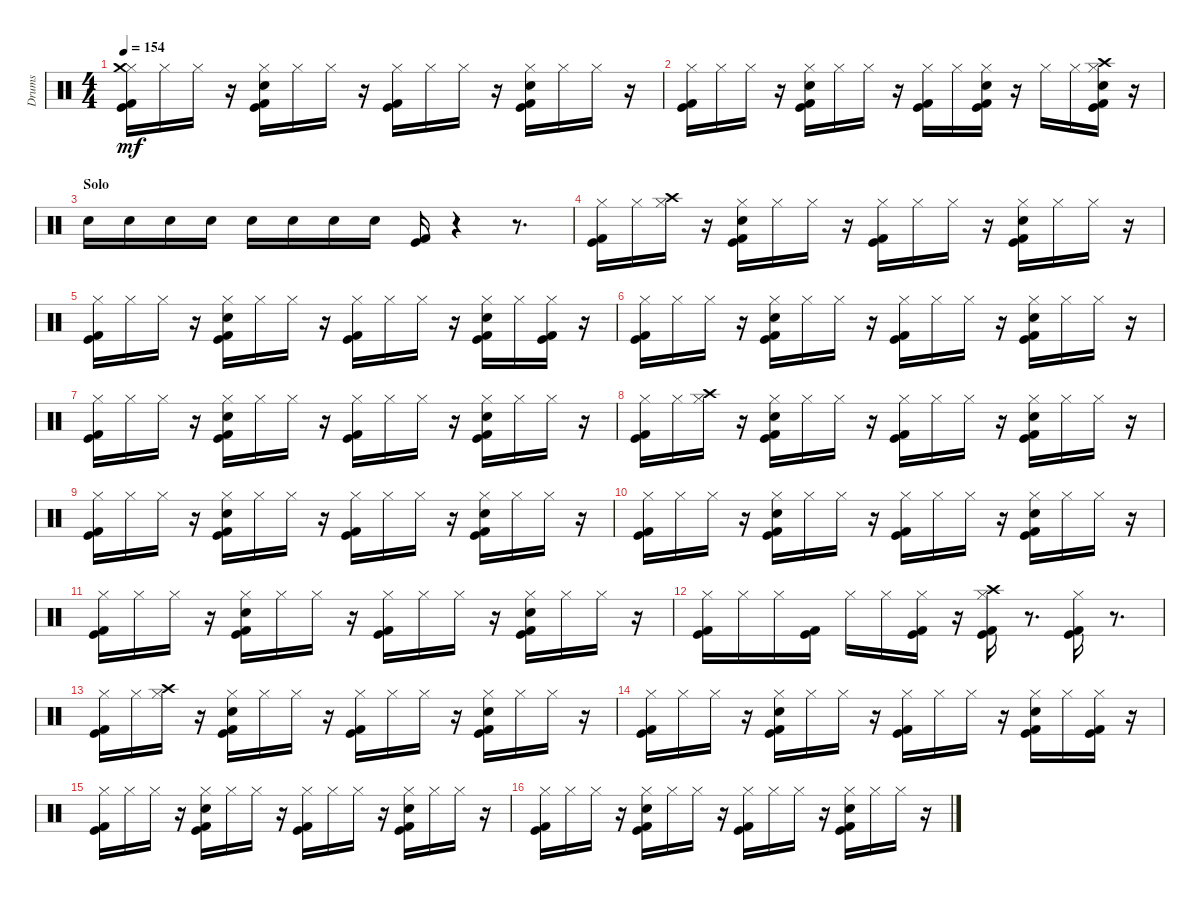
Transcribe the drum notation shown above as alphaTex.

\track ("Drums" "Drums") {instrument percussion}
\staff {score}
\articulation defaults
\ts (4 4)
\tempo 154
\clef neutral
\ks c
("Kick (hit)" "Kick (hit) 2" "Hi-Hat (closed)" "Crash medium (hit)").16{dy mf} "Hi-Hat (closed)".16 "Hi-Hat (closed)".16 r.16 ("Kick (hit)" "Kick (hit) 2" "Electric Snare (hit)" "Hi-Hat (closed)").16 "Hi-Hat (closed)".16 "Hi-Hat (closed)".16 r.16 ("Kick (hit)" "Kick (hit) 2" "Hi-Hat (closed)").16 "Hi-Hat (closed)".16 "Hi-Hat (closed)".16 r.16 ("Kick (hit)" "Kick (hit) 2" "Electric Snare (hit)" "Hi-Hat (closed)").16 "Hi-Hat (closed)".16 "Hi-Hat (closed)".16 r.16 |
("Kick (hit)" "Kick (hit) 2" "Hi-Hat (closed)").16 "Hi-Hat (closed)".16 "Hi-Hat (closed)".16 r.16 ("Kick (hit)" "Kick (hit) 2" "Electric Snare (hit)" "Hi-Hat (closed)").16 "Hi-Hat (closed)".16 "Hi-Hat (closed)".16 r.16 ("Kick (hit)" "Kick (hit) 2" "Hi-Hat (closed)").16 "Hi-Hat (closed)".16 ("Kick (hit)" "Kick (hit) 2" "Electric Snare (hit)" "Hi-Hat (closed)").16 r.16 "Hi-Hat (closed)".16 "Hi-Hat (closed)".16 ("Kick (hit)" "Kick (hit) 2" "Electric Snare (hit)" "Hi-Hat (closed)" "Crash high (hit)").16 r.16 |
\section ("" "Solo")
"Electric Snare (hit)".16 "Electric Snare (hit)".16 "Electric Snare (hit)".16 "Electric Snare (hit)".16 "Electric Snare (hit)".16 "Electric Snare (hit)".16 "Electric Snare (hit)".16 "Electric Snare (hit)".16 ("Kick (hit)" "Kick (hit) 2").16 r.4 r.8{d} |
("Kick (hit)" "Kick (hit) 2" "Hi-Hat (closed)").16 "Hi-Hat (closed)".16 ("Hi-Hat (closed)" "Crash high (hit)").16 r.16 ("Kick (hit)" "Kick (hit) 2" "Electric Snare (hit)" "Hi-Hat (closed)").16 "Hi-Hat (closed)".16 "Hi-Hat (closed)".16 r.16 ("Kick (hit)" "Kick (hit) 2" "Hi-Hat (closed)").16 "Hi-Hat (closed)".16 "Hi-Hat (closed)".16 r.16 ("Kick (hit)" "Kick (hit) 2" "Electric Snare (hit)" "Hi-Hat (closed)").16 "Hi-Hat (closed)".16 "Hi-Hat (closed)".16 r.16 |
("Kick (hit)" "Kick (hit) 2" "Hi-Hat (closed)").16 "Hi-Hat (closed)".16 "Hi-Hat (closed)".16 r.16 ("Kick (hit)" "Kick (hit) 2" "Electric Snare (hit)" "Hi-Hat (closed)").16 "Hi-Hat (closed)".16 "Hi-Hat (closed)".16 r.16 ("Kick (hit)" "Kick (hit) 2" "Hi-Hat (closed)").16 "Hi-Hat (closed)".16 "Hi-Hat (closed)".16 r.16 ("Kick (hit)" "Kick (hit) 2" "Electric Snare (hit)" "Hi-Hat (closed)").16 "Hi-Hat (closed)".16 ("Kick (hit)" "Kick (hit) 2" "Hi-Hat (closed)").16 r.16 |
("Kick (hit)" "Kick (hit) 2" "Hi-Hat (closed)").16 "Hi-Hat (closed)".16 "Hi-Hat (closed)".16 r.16 ("Kick (hit)" "Kick (hit) 2" "Electric Snare (hit)" "Hi-Hat (closed)").16 "Hi-Hat (closed)".16 "Hi-Hat (closed)".16 r.16 ("Kick (hit)" "Kick (hit) 2" "Hi-Hat (closed)").16 "Hi-Hat (closed)".16 "Hi-Hat (closed)".16 r.16 ("Kick (hit)" "Kick (hit) 2" "Electric Snare (hit)" "Hi-Hat (closed)").16 "Hi-Hat (closed)".16 "Hi-Hat (closed)".16 r.16 |
("Kick (hit)" "Kick (hit) 2" "Hi-Hat (closed)").16 "Hi-Hat (closed)".16 "Hi-Hat (closed)".16 r.16 ("Kick (hit)" "Kick (hit) 2" "Electric Snare (hit)" "Hi-Hat (closed)").16 "Hi-Hat (closed)".16 "Hi-Hat (closed)".16 r.16 ("Kick (hit)" "Kick (hit) 2" "Hi-Hat (closed)").16 "Hi-Hat (closed)".16 "Hi-Hat (closed)".16 r.16 ("Kick (hit)" "Kick (hit) 2" "Electric Snare (hit)" "Hi-Hat (closed)").16 "Hi-Hat (closed)".16 "Hi-Hat (closed)".16 r.16 |
("Kick (hit)" "Kick (hit) 2" "Hi-Hat (closed)").16 "Hi-Hat (closed)".16 ("Hi-Hat (closed)" "Crash high (hit)").16 r.16 ("Kick (hit)" "Kick (hit) 2" "Electric Snare (hit)" "Hi-Hat (closed)").16 "Hi-Hat (closed)".16 "Hi-Hat (closed)".16 r.16 ("Kick (hit)" "Kick (hit) 2" "Hi-Hat (closed)").16 "Hi-Hat (closed)".16 "Hi-Hat (closed)".16 r.16 ("Kick (hit)" "Kick (hit) 2" "Electric Snare (hit)" "Hi-Hat (closed)").16 "Hi-Hat (closed)".16 "Hi-Hat (closed)".16 r.16 |
("Kick (hit)" "Kick (hit) 2" "Hi-Hat (closed)").16 "Hi-Hat (closed)".16 "Hi-Hat (closed)".16 r.16 ("Kick (hit)" "Kick (hit) 2" "Electric Snare (hit)" "Hi-Hat (closed)").16 "Hi-Hat (closed)".16 "Hi-Hat (closed)".16 r.16 ("Kick (hit)" "Kick (hit) 2" "Hi-Hat (closed)").16 "Hi-Hat (closed)".16 "Hi-Hat (closed)".16 r.16 ("Kick (hit)" "Kick (hit) 2" "Electric Snare (hit)" "Hi-Hat (closed)").16 "Hi-Hat (closed)".16 "Hi-Hat (closed)".16 r.16 |
("Kick (hit)" "Kick (hit) 2" "Hi-Hat (closed)").16 "Hi-Hat (closed)".16 "Hi-Hat (closed)".16 r.16 ("Kick (hit)" "Kick (hit) 2" "Electric Snare (hit)" "Hi-Hat (closed)").16 "Hi-Hat (closed)".16 "Hi-Hat (closed)".16 r.16 ("Kick (hit)" "Kick (hit) 2" "Hi-Hat (closed)").16 "Hi-Hat (closed)".16 "Hi-Hat (closed)".16 r.16 ("Kick (hit)" "Kick (hit) 2" "Electric Snare (hit)" "Hi-Hat (closed)").16 "Hi-Hat (closed)".16 "Hi-Hat (closed)".16 r.16 |
("Kick (hit)" "Kick (hit) 2" "Hi-Hat (closed)").16 "Hi-Hat (closed)".16 "Hi-Hat (closed)".16 r.16 ("Kick (hit)" "Kick (hit) 2" "Electric Snare (hit)" "Hi-Hat (closed)").16 "Hi-Hat (closed)".16 "Hi-Hat (closed)".16 r.16 ("Kick (hit)" "Kick (hit) 2" "Hi-Hat (closed)").16 "Hi-Hat (closed)".16 "Hi-Hat (closed)".16 r.16 ("Kick (hit)" "Kick (hit) 2" "Electric Snare (hit)" "Hi-Hat (closed)").16 "Hi-Hat (closed)".16 "Hi-Hat (closed)".16 r.16 |
("Kick (hit)" "Kick (hit) 2" "Hi-Hat (closed)").16 "Hi-Hat (closed)".16 "Hi-Hat (closed)".16 ("Kick (hit)" "Kick (hit) 2").16 "Hi-Hat (closed)".16 "Hi-Hat (closed)".16 ("Kick (hit)" "Kick (hit) 2" "Hi-Hat (closed)").16 r.16 ("Kick (hit)" "Kick (hit) 2" "Hi-Hat (closed)" "Crash high (hit)").16 r.8{d} ("Kick (hit)" "Kick (hit) 2" "Hi-Hat (closed)").16 r.8{d} |
("Kick (hit)" "Kick (hit) 2" "Hi-Hat (closed)").16 "Hi-Hat (closed)".16 ("Hi-Hat (closed)" "Crash high (hit)").16 r.16 ("Kick (hit)" "Kick (hit) 2" "Electric Snare (hit)" "Hi-Hat (closed)").16 "Hi-Hat (closed)".16 "Hi-Hat (closed)".16 r.16 ("Kick (hit)" "Kick (hit) 2" "Hi-Hat (closed)").16 "Hi-Hat (closed)".16 "Hi-Hat (closed)".16 r.16 ("Kick (hit)" "Kick (hit) 2" "Electric Snare (hit)" "Hi-Hat (closed)").16 "Hi-Hat (closed)".16 "Hi-Hat (closed)".16 r.16 |
("Kick (hit)" "Kick (hit) 2" "Hi-Hat (closed)").16 "Hi-Hat (closed)".16 "Hi-Hat (closed)".16 r.16 ("Kick (hit)" "Kick (hit) 2" "Electric Snare (hit)" "Hi-Hat (closed)").16 "Hi-Hat (closed)".16 "Hi-Hat (closed)".16 r.16 ("Kick (hit)" "Kick (hit) 2" "Hi-Hat (closed)").16 "Hi-Hat (closed)".16 "Hi-Hat (closed)".16 r.16 ("Kick (hit)" "Kick (hit) 2" "Electric Snare (hit)" "Hi-Hat (closed)").16 "Hi-Hat (closed)".16 ("Kick (hit)" "Kick (hit) 2" "Hi-Hat (closed)").16 r.16 |
("Kick (hit)" "Kick (hit) 2" "Hi-Hat (closed)").16 "Hi-Hat (closed)".16 "Hi-Hat (closed)".16 r.16 ("Kick (hit)" "Kick (hit) 2" "Electric Snare (hit)" "Hi-Hat (closed)").16 "Hi-Hat (closed)".16 "Hi-Hat (closed)".16 r.16 ("Kick (hit)" "Kick (hit) 2" "Hi-Hat (closed)").16 "Hi-Hat (closed)".16 "Hi-Hat (closed)".16 r.16 ("Kick (hit)" "Kick (hit) 2" "Electric Snare (hit)" "Hi-Hat (closed)").16 "Hi-Hat (closed)".16 "Hi-Hat (closed)".16 r.16 |
("Kick (hit)" "Kick (hit) 2" "Hi-Hat (closed)").16 "Hi-Hat (closed)".16 "Hi-Hat (closed)".16 r.16 ("Kick (hit)" "Kick (hit) 2" "Electric Snare (hit)" "Hi-Hat (closed)").16 "Hi-Hat (closed)".16 "Hi-Hat (closed)".16 r.16 ("Kick (hit)" "Kick (hit) 2" "Hi-Hat (closed)").16 "Hi-Hat (closed)".16 "Hi-Hat (closed)".16 r.16 ("Kick (hit)" "Kick (hit) 2" "Electric Snare (hit)" "Hi-Hat (closed)").16 "Hi-Hat (closed)".16 "Hi-Hat (closed)".16 r.16
